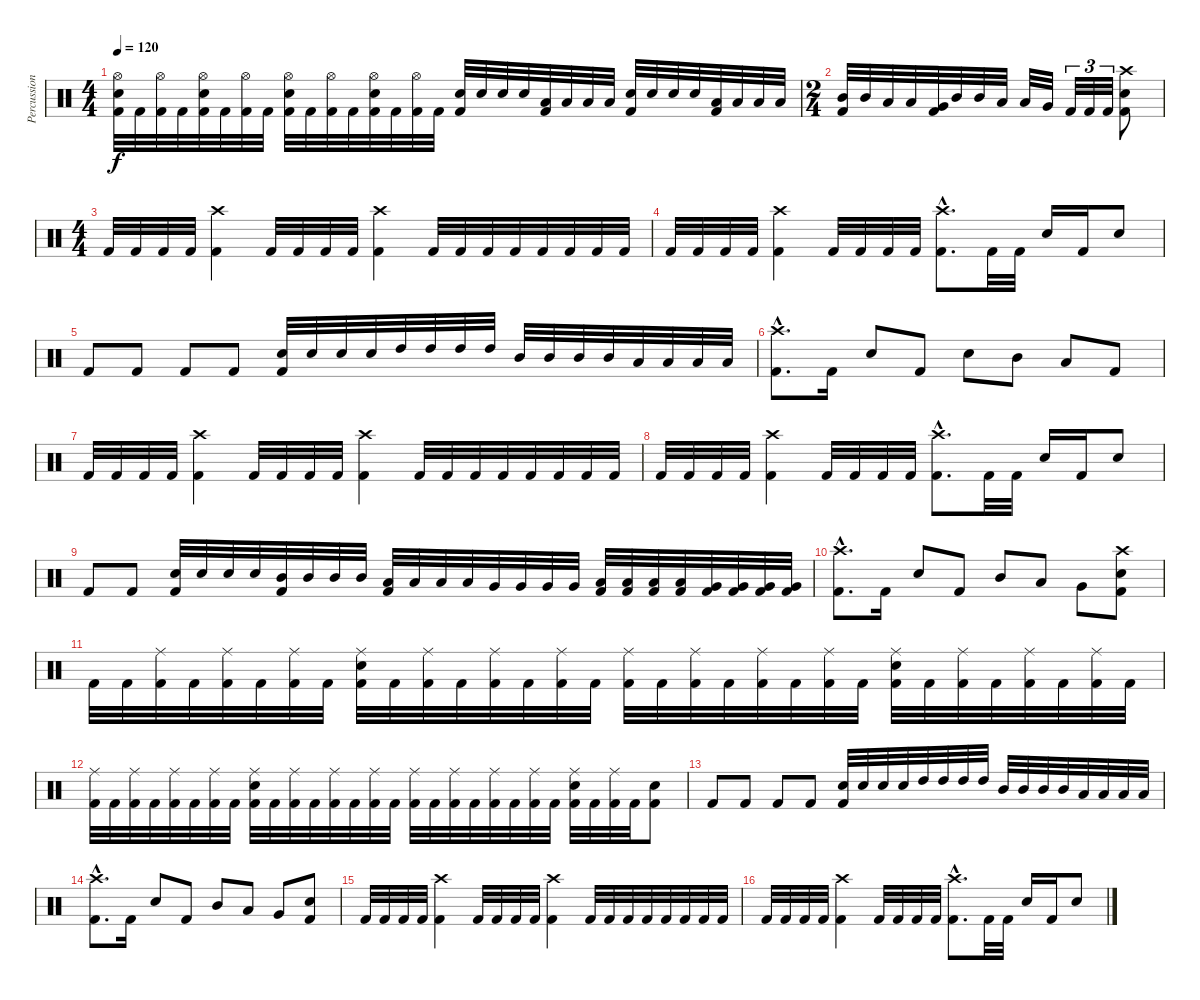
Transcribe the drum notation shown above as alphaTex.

\track ("Percussion" "Percussion") {instrument percussion}
\staff {score}
\articulation defaults
\ts (4 4)
\tempo 120
\clef neutral
\ks c
("Hi-Hat (open)" "Snare (hit) 2" "Kick (hit) 2").32{dy f} "Kick (hit) 2".32 ("Hi-Hat (open)" "Kick (hit) 2").32 "Kick (hit) 2".32 ("Hi-Hat (open)" "Snare (hit) 2" "Kick (hit) 2").32 "Kick (hit) 2".32 ("Hi-Hat (open)" "Kick (hit) 2").32 "Kick (hit) 2".32 ("Hi-Hat (open)" "Snare (hit) 2" "Kick (hit) 2").32 "Kick (hit) 2".32 ("Hi-Hat (open)" "Kick (hit) 2").32 "Kick (hit) 2".32 ("Hi-Hat (open)" "Snare (hit) 2" "Kick (hit) 2").32 "Kick (hit) 2".32 ("Hi-Hat (open)" "Kick (hit) 2").32 "Kick (hit) 2".32 ("Snare (hit) 2" "Kick (hit) 2").32 "Snare (hit) 2".32 "Snare (hit) 2".32 "Snare (hit) 2".32 ("Low Tom (hit)" "Kick (hit) 2").32 "Low Tom (hit)".32 "Low Tom (hit)".32 "Low Tom (hit)".32 ("Snare (hit) 2" "Kick (hit) 2").32 "Snare (hit) 2".32 "Snare (hit) 2".32 "Snare (hit) 2".32 ("Low Tom (hit)" "Kick (hit) 2").32 "Low Tom (hit)".32 "Low Tom (hit)".32 "Low Tom (hit)".32 |
\ts (2 4)
("Mid Tom (hit)" "Kick (hit) 2").32 "Mid Tom (hit)".32 "Low Tom (hit)".32 "Low Tom (hit)".32 ("Very Low Tom (hit)" "Kick (hit) 2").32 "Mid Tom (hit)".32 "Mid Tom (hit)".32 "Low Tom (hit)".32 "Low Tom (hit)".32 "Very Low Tom (hit)".32 "Kick (hit) 2".32{tu (3 2)} "Kick (hit) 2".32{tu (3 2)} "Kick (hit) 2".32{tu (3 2)} ("Crash high (hit)" "Snare (hit) 2" "Kick (hit) 2").8 |
\ts (4 4)
"Kick (hit) 2".32 "Kick (hit) 2".32 "Kick (hit) 2".32 "Kick (hit) 2".32 ("Crash high (hit)" "Kick (hit) 2").4 "Kick (hit) 2".32 "Kick (hit) 2".32 "Kick (hit) 2".32 "Kick (hit) 2".32 ("Crash high (hit)" "Kick (hit) 2").4 "Kick (hit) 2".32 "Kick (hit) 2".32 "Kick (hit) 2".32 "Kick (hit) 2".32 "Kick (hit) 2".32 "Kick (hit) 2".32 "Kick (hit) 2".32 "Kick (hit) 2".32 |
"Kick (hit) 2".32 "Kick (hit) 2".32 "Kick (hit) 2".32 "Kick (hit) 2".32 ("Crash high (hit)" "Kick (hit) 2").4 "Kick (hit) 2".32 "Kick (hit) 2".32 "Kick (hit) 2".32 "Kick (hit) 2".32 ("Crash high (hit)"{hac} "Kick (hit) 2"{hac}).8{d} "Kick (hit) 2".32 "Kick (hit) 2".32 "Snare (hit) 2".16 "Kick (hit) 2".16 "Snare (hit) 2".8 |
"Kick (hit) 2".8 "Kick (hit) 2".8 "Kick (hit) 2".8 "Kick (hit) 2".8 ("Snare (hit) 2" "Kick (hit) 2").32 "Snare (hit) 2".32 "Snare (hit) 2".32 "Snare (hit) 2".32 "High Tom (hit)".32 "High Tom (hit)".32 "High Tom (hit)".32 "High Tom (hit)".32 "Mid Tom (hit)".32 "Mid Tom (hit)".32 "Mid Tom (hit)".32 "Mid Tom (hit)".32 "Low Tom (hit)".32 "Low Tom (hit)".32 "Low Tom (hit)".32 "Low Tom (hit)".32 |
("Crash high (hit)"{hac} "Kick (hit) 2"{hac}).8{d} "Kick (hit) 2".16 "Snare (hit) 2".8 "Kick (hit) 2".8 "Snare (hit) 2".8 "Mid Tom (hit)".8 "Low Tom (hit)".8 "Kick (hit) 2".8 |
"Kick (hit) 2".32 "Kick (hit) 2".32 "Kick (hit) 2".32 "Kick (hit) 2".32 ("Crash high (hit)" "Kick (hit) 2").4 "Kick (hit) 2".32 "Kick (hit) 2".32 "Kick (hit) 2".32 "Kick (hit) 2".32 ("Crash high (hit)" "Kick (hit) 2").4 "Kick (hit) 2".32 "Kick (hit) 2".32 "Kick (hit) 2".32 "Kick (hit) 2".32 "Kick (hit) 2".32 "Kick (hit) 2".32 "Kick (hit) 2".32 "Kick (hit) 2".32 |
"Kick (hit) 2".32 "Kick (hit) 2".32 "Kick (hit) 2".32 "Kick (hit) 2".32 ("Crash high (hit)" "Kick (hit) 2").4 "Kick (hit) 2".32 "Kick (hit) 2".32 "Kick (hit) 2".32 "Kick (hit) 2".32 ("Crash high (hit)"{hac} "Kick (hit) 2"{hac}).8{d} "Kick (hit) 2".32 "Kick (hit) 2".32 "Snare (hit) 2".16 "Kick (hit) 2".16 "Snare (hit) 2".8 |
"Kick (hit) 2".8 "Kick (hit) 2".8 ("Snare (hit) 2" "Kick (hit) 2").32 "Snare (hit) 2".32 "Snare (hit) 2".32 "Snare (hit) 2".32 ("Mid Tom (hit)" "Kick (hit) 2").32 "Mid Tom (hit)".32 "Mid Tom (hit)".32 "Mid Tom (hit)".32 ("Low Tom (hit)" "Kick (hit) 2").32 "Low Tom (hit)".32 "Low Tom (hit)".32 "Low Tom (hit)".32 "Very Low Tom (hit)".32 "Very Low Tom (hit)".32 "Very Low Tom (hit)".32 "Very Low Tom (hit)".32 ("Low Tom (hit)" "Kick (hit) 2").32 ("Low Tom (hit)" "Kick (hit) 2").32 ("Low Tom (hit)" "Kick (hit) 2").32 ("Low Tom (hit)" "Kick (hit) 2").32 ("Very Low Tom (hit)" "Kick (hit) 2").32 ("Very Low Tom (hit)" "Kick (hit) 2").32 ("Very Low Tom (hit)" "Kick (hit) 2").32 ("Very Low Tom (hit)" "Kick (hit) 2").32 |
("Crash high (hit)"{hac} "Kick (hit) 2"{hac}).8{d} "Kick (hit) 2".16 "Snare (hit) 2".8 "Kick (hit) 2".8 "Mid Tom (hit)".8 "Low Tom (hit)".8 "Very Low Tom (hit)".8 ("Crash high (hit)" "Snare (hit) 2" "Kick (hit) 2").8 |
"Kick (hit) 2".32 "Kick (hit) 2".32 ("Ride (middle)" "Kick (hit) 2").32 "Kick (hit) 2".32 ("Ride (middle)" "Kick (hit) 2").32 "Kick (hit) 2".32 ("Ride (middle)" "Kick (hit) 2").32 "Kick (hit) 2".32 ("Ride (middle)" "Snare (hit) 2" "Kick (hit) 2").32 "Kick (hit) 2".32 ("Ride (middle)" "Kick (hit) 2").32 "Kick (hit) 2".32 ("Ride (middle)" "Kick (hit) 2").32 "Kick (hit) 2".32 ("Ride (middle)" "Kick (hit) 2").32 "Kick (hit) 2".32 ("Ride (middle)" "Kick (hit) 2").32 "Kick (hit) 2".32 ("Ride (middle)" "Kick (hit) 2").32 "Kick (hit) 2".32 ("Ride (middle)" "Kick (hit) 2").32 "Kick (hit) 2".32 ("Ride (middle)" "Kick (hit) 2").32 "Kick (hit) 2".32 ("Ride (middle)" "Snare (hit) 2" "Kick (hit) 2").32 "Kick (hit) 2".32 ("Ride (middle)" "Kick (hit) 2").32 "Kick (hit) 2".32 ("Ride (middle)" "Kick (hit) 2").32 "Kick (hit) 2".32 ("Ride (middle)" "Kick (hit) 2").32 "Kick (hit) 2".32 |
("Ride (middle)" "Kick (hit) 2").32 "Kick (hit) 2".32 ("Ride (middle)" "Kick (hit) 2").32 "Kick (hit) 2".32 ("Ride (middle)" "Kick (hit) 2").32 "Kick (hit) 2".32 ("Ride (middle)" "Kick (hit) 2").32 "Kick (hit) 2".32 ("Ride (middle)" "Snare (hit) 2" "Kick (hit) 2").32 "Kick (hit) 2".32 ("Ride (middle)" "Kick (hit) 2").32 "Kick (hit) 2".32 ("Ride (middle)" "Kick (hit) 2").32 "Kick (hit) 2".32 ("Ride (middle)" "Kick (hit) 2").32 "Kick (hit) 2".32 ("Ride (middle)" "Kick (hit) 2").32 "Kick (hit) 2".32 ("Ride (middle)" "Kick (hit) 2").32 "Kick (hit) 2".32 ("Ride (middle)" "Kick (hit) 2").32 "Kick (hit) 2".32 ("Ride (middle)" "Kick (hit) 2").32 "Kick (hit) 2".32 ("Ride (middle)" "Snare (hit) 2" "Kick (hit) 2").32 "Kick (hit) 2".32 ("Ride (middle)" "Kick (hit) 2").32 "Kick (hit) 2".32 ("Snare (hit) 2" "Kick (hit) 2").8 |
"Kick (hit) 2".8 "Kick (hit) 2".8 "Kick (hit) 2".8 "Kick (hit) 2".8 ("Snare (hit) 2" "Kick (hit) 2").32 "Snare (hit) 2".32 "Snare (hit) 2".32 "Snare (hit) 2".32 "High Tom (hit)".32 "High Tom (hit)".32 "High Tom (hit)".32 "High Tom (hit)".32 "Mid Tom (hit)".32 "Mid Tom (hit)".32 "Mid Tom (hit)".32 "Mid Tom (hit)".32 "Low Tom (hit)".32 "Low Tom (hit)".32 "Low Tom (hit)".32 "Low Tom (hit)".32 |
("Crash high (hit)"{hac} "Kick (hit) 2"{hac}).8{d} "Kick (hit) 2".16 "Snare (hit) 2".8 "Kick (hit) 2".8 "Mid Tom (hit)".8 "Low Tom (hit)".8 "Very Low Tom (hit)".8 ("Snare (hit) 2" "Kick (hit) 2").8 |
"Kick (hit) 2".32 "Kick (hit) 2".32 "Kick (hit) 2".32 "Kick (hit) 2".32 ("Crash high (hit)" "Kick (hit) 2").4 "Kick (hit) 2".32 "Kick (hit) 2".32 "Kick (hit) 2".32 "Kick (hit) 2".32 ("Crash high (hit)" "Kick (hit) 2").4 "Kick (hit) 2".32 "Kick (hit) 2".32 "Kick (hit) 2".32 "Kick (hit) 2".32 "Kick (hit) 2".32 "Kick (hit) 2".32 "Kick (hit) 2".32 "Kick (hit) 2".32 |
"Kick (hit) 2".32 "Kick (hit) 2".32 "Kick (hit) 2".32 "Kick (hit) 2".32 ("Crash high (hit)" "Kick (hit) 2").4 "Kick (hit) 2".32 "Kick (hit) 2".32 "Kick (hit) 2".32 "Kick (hit) 2".32 ("Crash high (hit)"{hac} "Kick (hit) 2"{hac}).8{d} "Kick (hit) 2".32 "Kick (hit) 2".32 "Snare (hit) 2".16 "Kick (hit) 2".16 "Snare (hit) 2".8
